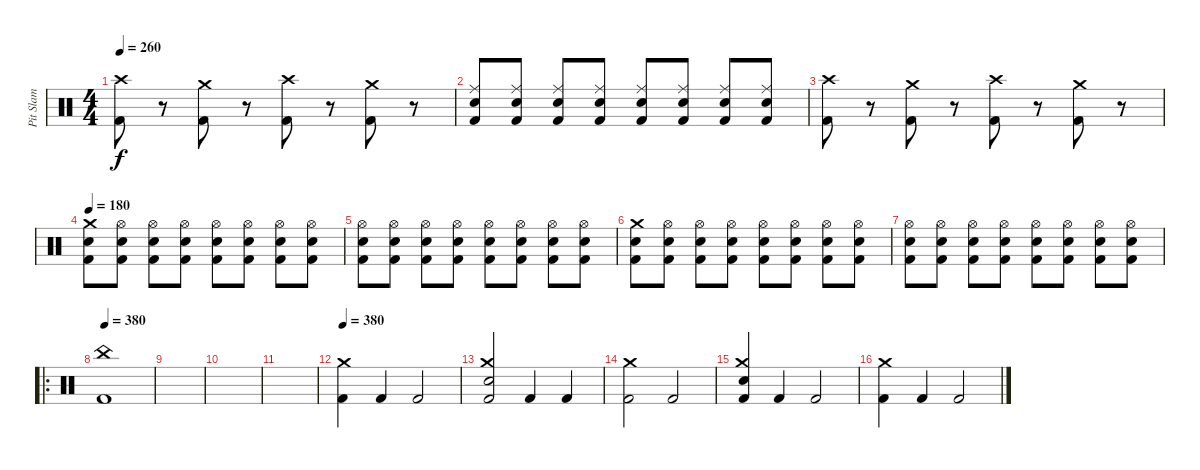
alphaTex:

\track ("Pit Slam" "Pit Slam") {instrument percussion}
\staff {score}
\articulation defaults
\ts (4 4)
\tempo 260
\clef neutral
\ks c
("Crash high (hit)" "Kick (hit) 2").8{dy f} r.8 ("Crash medium (hit)" "Kick (hit) 2").8 r.8 ("Crash high (hit)" "Kick (hit) 2").8 r.8 ("Crash medium (hit)" "Kick (hit) 2").8 r.8 |
("Ride (middle)" "Electric Snare (hit)" "Kick (hit) 2").8 ("Ride (middle)" "Electric Snare (hit)" "Kick (hit) 2").8 ("Ride (middle)" "Electric Snare (hit)" "Kick (hit) 2").8 ("Ride (middle)" "Electric Snare (hit)" "Kick (hit) 2").8 ("Ride (middle)" "Electric Snare (hit)" "Kick (hit) 2").8 ("Ride (middle)" "Electric Snare (hit)" "Kick (hit) 2").8 ("Ride (middle)" "Electric Snare (hit)" "Kick (hit) 2").8 ("Ride (middle)" "Electric Snare (hit)" "Kick (hit) 2").8 |
("Crash high (hit)" "Kick (hit) 2").8 r.8 ("Crash medium (hit)" "Kick (hit) 2").8 r.8 ("Crash high (hit)" "Kick (hit) 2").8 r.8 ("Crash medium (hit)" "Kick (hit) 2").8 r.8 |
\tempo 180
("Crash medium (hit)" "Electric Snare (hit)" "Kick (hit) 2").8 ("Hi-Hat (open)" "Electric Snare (hit)" "Kick (hit) 2").8 ("Hi-Hat (open)" "Electric Snare (hit)" "Kick (hit) 2").8 ("Hi-Hat (open)" "Electric Snare (hit)" "Kick (hit) 2").8 ("Hi-Hat (open)" "Electric Snare (hit)" "Kick (hit) 2").8 ("Hi-Hat (open)" "Electric Snare (hit)" "Kick (hit) 2").8 ("Hi-Hat (open)" "Electric Snare (hit)" "Kick (hit) 2").8 ("Hi-Hat (open)" "Electric Snare (hit)" "Kick (hit) 2").8 |
("Hi-Hat (open)" "Electric Snare (hit)" "Kick (hit) 2").8 ("Hi-Hat (open)" "Electric Snare (hit)" "Kick (hit) 2").8 ("Hi-Hat (open)" "Electric Snare (hit)" "Kick (hit) 2").8 ("Hi-Hat (open)" "Electric Snare (hit)" "Kick (hit) 2").8 ("Hi-Hat (open)" "Electric Snare (hit)" "Kick (hit) 2").8 ("Hi-Hat (open)" "Electric Snare (hit)" "Kick (hit) 2").8 ("Hi-Hat (open)" "Electric Snare (hit)" "Kick (hit) 2").8 ("Hi-Hat (open)" "Electric Snare (hit)" "Kick (hit) 2").8 |
("Crash medium (hit)" "Electric Snare (hit)" "Kick (hit) 2").8 ("Hi-Hat (open)" "Electric Snare (hit)" "Kick (hit) 2").8 ("Hi-Hat (open)" "Electric Snare (hit)" "Kick (hit) 2").8 ("Hi-Hat (open)" "Electric Snare (hit)" "Kick (hit) 2").8 ("Hi-Hat (open)" "Electric Snare (hit)" "Kick (hit) 2").8 ("Hi-Hat (open)" "Electric Snare (hit)" "Kick (hit) 2").8 ("Hi-Hat (open)" "Electric Snare (hit)" "Kick (hit) 2").8 ("Hi-Hat (open)" "Electric Snare (hit)" "Kick (hit) 2").8 |
("Hi-Hat (open)" "Electric Snare (hit)" "Kick (hit) 2").8 ("Hi-Hat (open)" "Electric Snare (hit)" "Kick (hit) 2").8 ("Hi-Hat (open)" "Electric Snare (hit)" "Kick (hit) 2").8 ("Hi-Hat (open)" "Electric Snare (hit)" "Kick (hit) 2").8 ("Hi-Hat (open)" "Electric Snare (hit)" "Kick (hit) 2").8 ("Hi-Hat (open)" "Electric Snare (hit)" "Kick (hit) 2").8 ("Hi-Hat (open)" "Electric Snare (hit)" "Kick (hit) 2").8 ("Hi-Hat (open)" "Electric Snare (hit)" "Kick (hit) 2").8 |
\ro
\tempo 380
("China (hit)" "Kick (hit) 2").1 |
|
|
|
\tempo 380
("Crash medium (hit)" "Kick (hit) 2").4 "Kick (hit) 2".4 "Kick (hit) 2".2 |
("Crash medium (hit)" "Electric Snare (hit)" "Kick (hit) 2").2 "Kick (hit) 2".4 "Kick (hit) 2".4 |
("Crash medium (hit)" "Kick (hit) 2").2 "Kick (hit) 2".2 |
("Crash medium (hit)" "Electric Snare (hit)" "Kick (hit) 2").4 "Kick (hit) 2".4 "Kick (hit) 2".2 |
("Crash medium (hit)" "Kick (hit) 2").4 "Kick (hit) 2".4 "Kick (hit) 2".2
